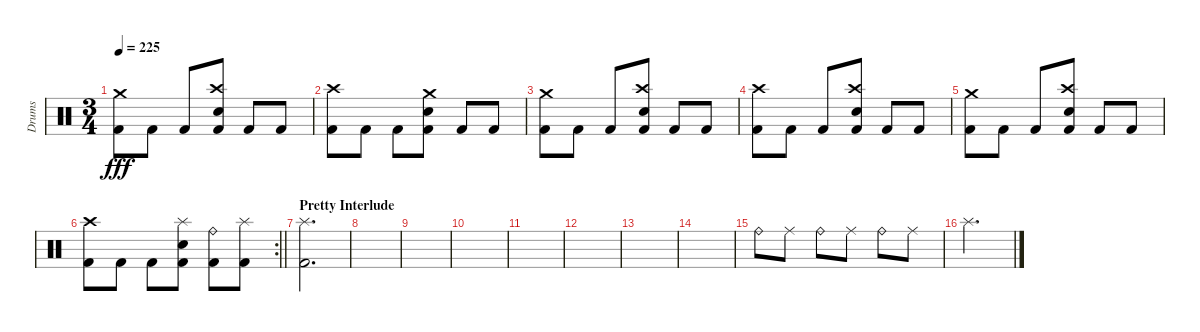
\track ("Drums" "Drums") {instrument percussion}
\staff {score}
\articulation defaults
\ts (3 4)
\tempo 225
\clef neutral
\ks c
("Crash medium (hit)" "Kick (hit) 2").8{dy fff} "Kick (hit) 2".8 "Kick (hit) 2".8 ("Crash high (hit)" "Electric Snare (hit)" "Kick (hit) 2").8 "Kick (hit) 2".8 "Kick (hit) 2".8 |
("Crash high (hit)" "Kick (hit) 2").8 "Kick (hit) 2".8 "Kick (hit) 2".8 ("Crash medium (hit)" "Electric Snare (hit)" "Kick (hit) 2").8 "Kick (hit) 2".8 "Kick (hit) 2".8 |
("Crash medium (hit)" "Kick (hit) 2").8 "Kick (hit) 2".8 "Kick (hit) 2".8 ("Crash high (hit)" "Electric Snare (hit)" "Kick (hit) 2").8 "Kick (hit) 2".8 "Kick (hit) 2".8 |
("Crash high (hit)" "Kick (hit) 2").8 "Kick (hit) 2".8 "Kick (hit) 2".8 ("Crash high (hit)" "Electric Snare (hit)" "Kick (hit) 2").8 "Kick (hit) 2".8 "Kick (hit) 2".8 |
("Crash medium (hit)" "Kick (hit) 2").8 "Kick (hit) 2".8 "Kick (hit) 2".8 ("Crash high (hit)" "Electric Snare (hit)" "Kick (hit) 2").8 "Kick (hit) 2".8 "Kick (hit) 2".8 |
\rc 2
\barLineRight lightlight
("Crash high (hit)" "Kick (hit) 2").8 "Kick (hit) 2".8 "Kick (hit) 2".8 ("Splash (hit)" "Electric Snare (hit)" "Kick (hit) 2").8 ("Ride (bell)" "Kick (hit) 2").8 ("Splash (hit)" "Kick (hit) 2").8 |
\section ("" "Pretty Interlude")
("Splash (hit)" "Kick (hit) 2").2{d} |
|
|
|
|
|
|
|
"Ride (bell)".8 "Ride (middle)".8 "Ride (bell)".8 "Ride (middle)".8 "Ride (bell)".8 "Ride (middle)".8 |
"Splash (hit)".2{d}
